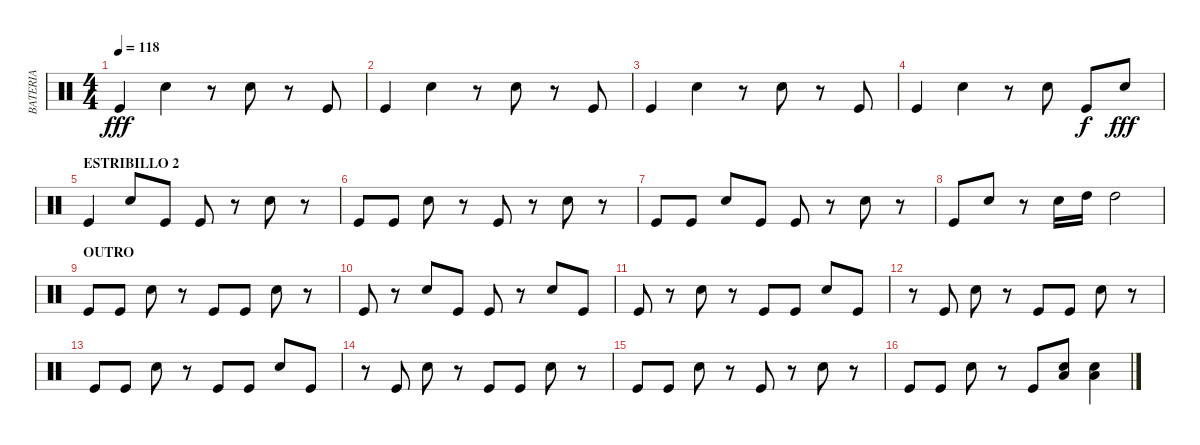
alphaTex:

\track ("BATERIA" "BATERIA") {instrument percussion}
\staff {score}
\articulation defaults
\ts (4 4)
\tempo 118
\clef neutral
\ks c "Kick (hit)".4{dy fff} "Snare (hit) 2".4
r.8 "Snare (hit) 2".8 r.8 "Kick (hit)".8 |
"Kick (hit)".4 "Snare (hit) 2".4 r.8 "Snare (hit) 2".8 r.8 "Kick (hit)".8 |
"Kick (hit)".4 "Snare (hit) 2".4 r.8 "Snare (hit) 2".8 r.8 "Kick (hit)".8 |
"Kick (hit)".4 "Snare (hit) 2".4 r.8 "Snare (hit) 2".8 "Kick (hit)".8{dy f} "Snare (hit) 2".8{dy fff} |
\section ("" "ESTRIBILLO 2")
"Kick (hit)".4 "Snare (hit) 2".8 "Kick (hit)".8 "Kick (hit)".8 r.8 "Snare (hit) 2".8 r.8 |
"Kick (hit)".8 "Kick (hit)".8 "Snare (hit) 2".8 r.8 "Kick (hit)".8 r.8 "Snare (hit) 2".8 r.8 |
"Kick (hit)".8 "Kick (hit)".8 "Snare (hit) 2".8 "Kick (hit)".8 "Kick (hit)".8 r.8 "Snare (hit) 2".8 r.8 |
"Kick (hit)".8 "Snare (hit) 2".8 r.8 "Snare (hit) 2".16 "High Tom (hit)".16 "High Tom (hit)".2 |
\section ("" "OUTRO")
"Kick (hit)".8 "Kick (hit)".8 "Snare (hit) 2".8 r.8 "Kick (hit)".8 "Kick (hit)".8 "Snare (hit) 2".8 r.8 |
"Kick (hit)".8 r.8 "Snare (hit) 2".8 "Kick (hit)".8 "Kick (hit)".8 r.8 "Snare (hit) 2".8 "Kick (hit)".8 |
"Kick (hit)".8 r.8 "Snare (hit) 2".8 r.8 "Kick (hit)".8 "Kick (hit)".8 "Snare (hit) 2".8 "Kick (hit)".8 |
r.8 "Kick (hit)".8 "Snare (hit) 2".8 r.8 "Kick (hit)".8 "Kick (hit)".8 "Snare (hit) 2".8 r.8 |
"Kick (hit)".8 "Kick (hit)".8 "Snare (hit) 2".8 r.8 "Kick (hit)".8 "Kick (hit)".8 "Snare (hit) 2".8 "Kick (hit)".8 |
r.8 "Kick (hit)".8 "Snare (hit) 2".8 r.8 "Kick (hit)".8 "Kick (hit)".8 "Snare (hit) 2".8 r.8 |
"Kick (hit)".8 "Kick (hit)".8 "Snare (hit) 2".8 r.8 "Kick (hit)".8 r.8 "Snare (hit) 2".8 r.8 |
"Kick (hit)".8 "Kick (hit)".8 "Snare (hit) 2".8 r.8 "Kick (hit)".8 ("Low Tom (hit)" "Snare (hit) 2").8 ("Low Tom (hit)" "Snare (hit) 2").4
